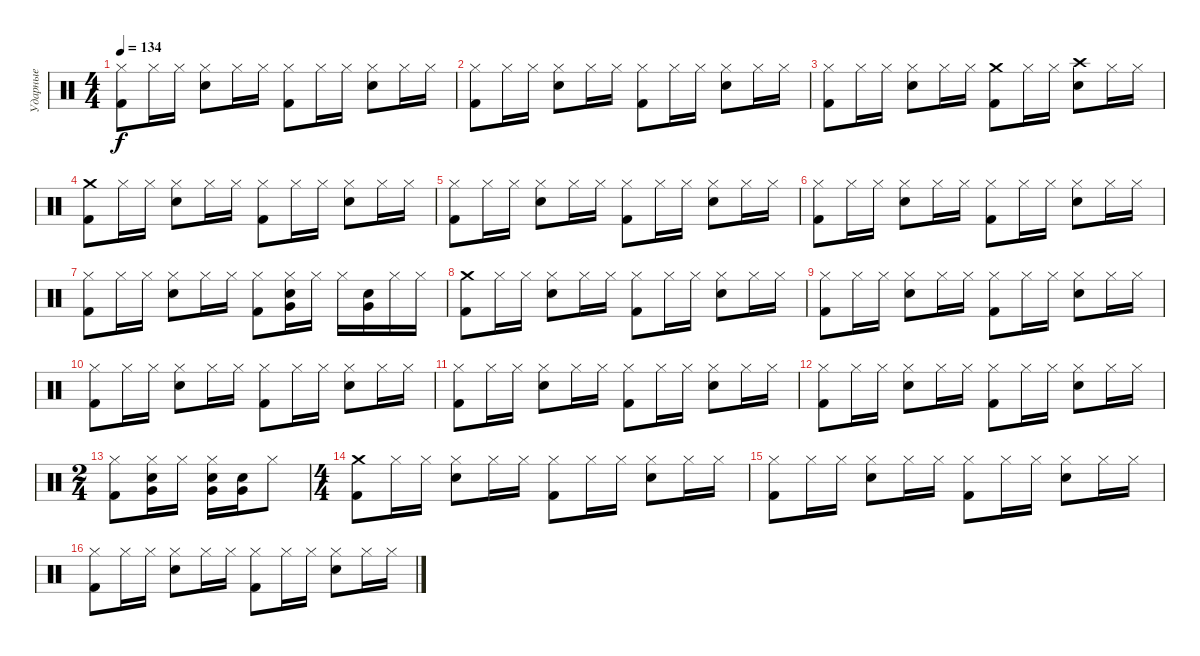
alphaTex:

\track ("Ударные" "Ударные") {instrument percussion}
\staff {score}
\articulation defaults
\ts (4 4)
\tempo 134
\clef neutral
\ks c
("Hi-Hat (closed)" "Kick (hit) 2").8{dy f} "Hi-Hat (closed)".16 "Hi-Hat (closed)".16 ("Hi-Hat (closed)" "Snare (hit) 2").8 "Hi-Hat (closed)".16 "Hi-Hat (closed)".16 ("Hi-Hat (closed)" "Kick (hit) 2").8 "Hi-Hat (closed)".16 "Hi-Hat (closed)".16 ("Hi-Hat (closed)" "Snare (hit) 2").8 "Hi-Hat (closed)".16 "Hi-Hat (closed)".16 |
("Hi-Hat (closed)" "Kick (hit) 2").8 "Hi-Hat (closed)".16 "Hi-Hat (closed)".16 ("Hi-Hat (closed)" "Snare (hit) 2").8 "Hi-Hat (closed)".16 "Hi-Hat (closed)".16 ("Hi-Hat (closed)" "Kick (hit) 2").8 "Hi-Hat (closed)".16 "Hi-Hat (closed)".16 ("Hi-Hat (closed)" "Snare (hit) 2").8 "Hi-Hat (closed)".16 "Hi-Hat (closed)".16 |
("Hi-Hat (closed)" "Kick (hit) 2").8 "Hi-Hat (closed)".16 "Hi-Hat (closed)".16 ("Hi-Hat (closed)" "Snare (hit) 2").8 "Hi-Hat (closed)".16 "Hi-Hat (closed)".16 ("Crash medium (hit)" "Kick (hit) 2").8 "Hi-Hat (closed)".16 "Hi-Hat (closed)".16 ("Crash high (hit)" "Snare (hit) 2").8 "Hi-Hat (closed)".16 "Hi-Hat (closed)".16 |
("Crash medium (hit)" "Kick (hit) 2").8 "Hi-Hat (closed)".16 "Hi-Hat (closed)".16 ("Hi-Hat (closed)" "Snare (hit) 2").8 "Hi-Hat (closed)".16 "Hi-Hat (closed)".16 ("Hi-Hat (closed)" "Kick (hit) 2").8 "Hi-Hat (closed)".16 "Hi-Hat (closed)".16 ("Hi-Hat (closed)" "Snare (hit) 2").8 "Hi-Hat (closed)".16 "Hi-Hat (closed)".16 |
("Hi-Hat (closed)" "Kick (hit) 2").8 "Hi-Hat (closed)".16 "Hi-Hat (closed)".16 ("Hi-Hat (closed)" "Snare (hit) 2").8 "Hi-Hat (closed)".16 "Hi-Hat (closed)".16 ("Hi-Hat (closed)" "Kick (hit) 2").8 "Hi-Hat (closed)".16 "Hi-Hat (closed)".16 ("Hi-Hat (closed)" "Snare (hit) 2").8 "Hi-Hat (closed)".16 "Hi-Hat (closed)".16 |
("Hi-Hat (closed)" "Kick (hit) 2").8 "Hi-Hat (closed)".16 "Hi-Hat (closed)".16 ("Hi-Hat (closed)" "Snare (hit) 2").8 "Hi-Hat (closed)".16 "Hi-Hat (closed)".16 ("Hi-Hat (closed)" "Kick (hit) 2").8 "Hi-Hat (closed)".16 "Hi-Hat (closed)".16 ("Hi-Hat (closed)" "Snare (hit) 2").8 "Hi-Hat (closed)".16 "Hi-Hat (closed)".16 |
("Hi-Hat (closed)" "Kick (hit) 2").8 "Hi-Hat (closed)".16 "Hi-Hat (closed)".16 ("Hi-Hat (closed)" "Snare (hit) 2").8 "Hi-Hat (closed)".16 "Hi-Hat (closed)".16 ("Hi-Hat (closed)" "Kick (hit) 2").8 ("Hi-Hat (closed)" "Snare (hit) 2" "Very Low Tom (hit)").16 "Hi-Hat (closed)".16 "Hi-Hat (closed)".16 ("Snare (hit) 2" "Very Low Tom (hit)").16 "Hi-Hat (closed)".16 "Hi-Hat (closed)".16 |
("Crash medium (hit)" "Kick (hit) 2").8 "Hi-Hat (closed)".16 "Hi-Hat (closed)".16 ("Hi-Hat (closed)" "Snare (hit) 2").8 "Hi-Hat (closed)".16 "Hi-Hat (closed)".16 ("Hi-Hat (closed)" "Kick (hit) 2").8 "Hi-Hat (closed)".16 "Hi-Hat (closed)".16 ("Hi-Hat (closed)" "Snare (hit) 2").8 "Hi-Hat (closed)".16 "Hi-Hat (closed)".16 |
("Hi-Hat (closed)" "Kick (hit) 2").8 "Hi-Hat (closed)".16 "Hi-Hat (closed)".16 ("Hi-Hat (closed)" "Snare (hit) 2").8 "Hi-Hat (closed)".16 "Hi-Hat (closed)".16 ("Hi-Hat (closed)" "Kick (hit) 2").8 "Hi-Hat (closed)".16 "Hi-Hat (closed)".16 ("Hi-Hat (closed)" "Snare (hit) 2").8 "Hi-Hat (closed)".16 "Hi-Hat (closed)".16 |
("Hi-Hat (closed)" "Kick (hit) 2").8 "Hi-Hat (closed)".16 "Hi-Hat (closed)".16 ("Hi-Hat (closed)" "Snare (hit) 2").8 "Hi-Hat (closed)".16 "Hi-Hat (closed)".16 ("Hi-Hat (closed)" "Kick (hit) 2").8 "Hi-Hat (closed)".16 "Hi-Hat (closed)".16 ("Hi-Hat (closed)" "Snare (hit) 2").8 "Hi-Hat (closed)".16 "Hi-Hat (closed)".16 |
("Hi-Hat (closed)" "Kick (hit) 2").8 "Hi-Hat (closed)".16 "Hi-Hat (closed)".16 ("Hi-Hat (closed)" "Snare (hit) 2").8 "Hi-Hat (closed)".16 "Hi-Hat (closed)".16 ("Hi-Hat (closed)" "Kick (hit) 2").8 "Hi-Hat (closed)".16 "Hi-Hat (closed)".16 ("Hi-Hat (closed)" "Snare (hit) 2").8 "Hi-Hat (closed)".16 "Hi-Hat (closed)".16 |
("Hi-Hat (closed)" "Kick (hit) 2").8 "Hi-Hat (closed)".16 "Hi-Hat (closed)".16 ("Hi-Hat (closed)" "Snare (hit) 2").8 "Hi-Hat (closed)".16 "Hi-Hat (closed)".16 ("Hi-Hat (closed)" "Kick (hit) 2").8 "Hi-Hat (closed)".16 "Hi-Hat (closed)".16 ("Hi-Hat (closed)" "Snare (hit) 2").8 "Hi-Hat (closed)".16 "Hi-Hat (closed)".16 |
\ts (2 4)
("Hi-Hat (closed)" "Kick (hit) 2").8 ("Hi-Hat (closed)" "Snare (hit) 2" "Very Low Tom (hit)").16 "Hi-Hat (closed)".16 ("Hi-Hat (closed)" "Snare (hit) 2" "Very Low Tom (hit)").16 ("Snare (hit) 2" "Very Low Tom (hit)").16 "Hi-Hat (closed)".8 |
\ts (4 4)
("Crash medium (hit)" "Kick (hit) 2").8 "Hi-Hat (closed)".16 "Hi-Hat (closed)".16 ("Hi-Hat (closed)" "Snare (hit) 2").8 "Hi-Hat (closed)".16 "Hi-Hat (closed)".16 ("Hi-Hat (closed)" "Kick (hit) 2").8 "Hi-Hat (closed)".16 "Hi-Hat (closed)".16 ("Hi-Hat (closed)" "Snare (hit) 2").8 "Hi-Hat (closed)".16 "Hi-Hat (closed)".16 |
("Hi-Hat (closed)" "Kick (hit) 2").8 "Hi-Hat (closed)".16 "Hi-Hat (closed)".16 ("Hi-Hat (closed)" "Snare (hit) 2").8 "Hi-Hat (closed)".16 "Hi-Hat (closed)".16 ("Hi-Hat (closed)" "Kick (hit) 2").8 "Hi-Hat (closed)".16 "Hi-Hat (closed)".16 ("Hi-Hat (closed)" "Snare (hit) 2").8 "Hi-Hat (closed)".16 "Hi-Hat (closed)".16 |
("Hi-Hat (closed)" "Kick (hit) 2").8 "Hi-Hat (closed)".16 "Hi-Hat (closed)".16 ("Hi-Hat (closed)" "Snare (hit) 2").8 "Hi-Hat (closed)".16 "Hi-Hat (closed)".16 ("Hi-Hat (closed)" "Kick (hit) 2").8 "Hi-Hat (closed)".16 "Hi-Hat (closed)".16 ("Hi-Hat (closed)" "Snare (hit) 2").8 "Hi-Hat (closed)".16 "Hi-Hat (closed)".16
